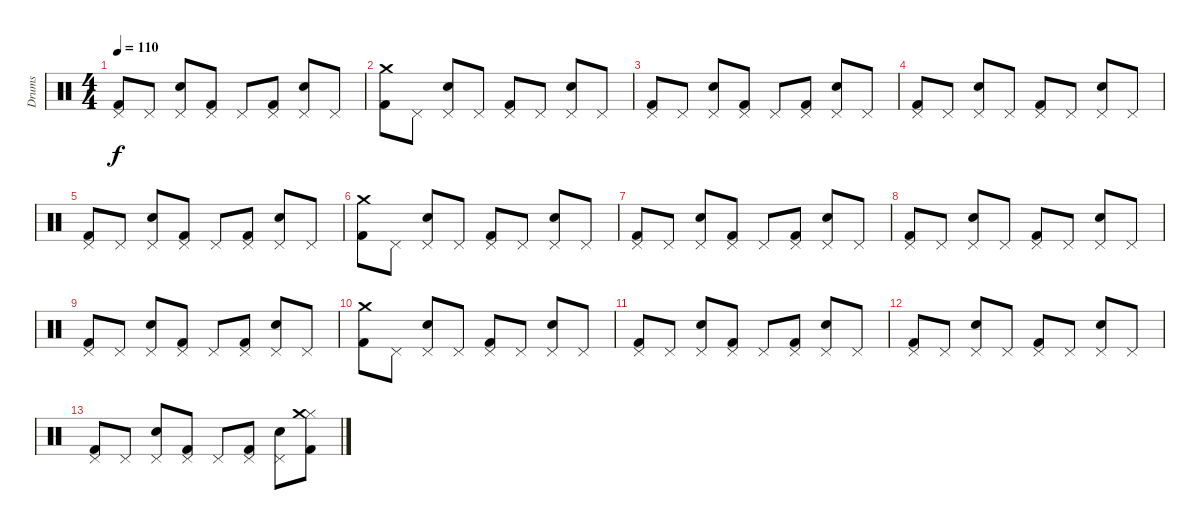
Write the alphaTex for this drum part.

\track ("Drums" "Drums") {instrument percussion}
\staff {score}
\articulation defaults
\ts (4 4)
\tempo 110
\clef neutral
\ks c
("Pedal Hi-Hat (hit)" "Kick (hit) 2").8{dy f} "Pedal Hi-Hat (hit)".8 ("Pedal Hi-Hat (hit)" "Snare (hit) 2").8 ("Pedal Hi-Hat (hit)" "Kick (hit) 2").8 "Pedal Hi-Hat (hit)".8 ("Pedal Hi-Hat (hit)" "Kick (hit) 2").8 ("Pedal Hi-Hat (hit)" "Snare (hit) 2").8 "Pedal Hi-Hat (hit)".8 |
("Crash medium (hit)" "Kick (hit) 2").8 "Pedal Hi-Hat (hit)".8 ("Pedal Hi-Hat (hit)" "Snare (hit) 2").8 "Pedal Hi-Hat (hit)".8 ("Pedal Hi-Hat (hit)" "Kick (hit) 2").8 "Pedal Hi-Hat (hit)".8 ("Pedal Hi-Hat (hit)" "Snare (hit) 2").8 "Pedal Hi-Hat (hit)".8 |
("Pedal Hi-Hat (hit)" "Kick (hit) 2").8 "Pedal Hi-Hat (hit)".8 ("Pedal Hi-Hat (hit)" "Snare (hit) 2").8 ("Pedal Hi-Hat (hit)" "Kick (hit) 2").8 "Pedal Hi-Hat (hit)".8 ("Pedal Hi-Hat (hit)" "Kick (hit) 2").8 ("Pedal Hi-Hat (hit)" "Snare (hit) 2").8 "Pedal Hi-Hat (hit)".8 |
("Pedal Hi-Hat (hit)" "Kick (hit) 2").8 "Pedal Hi-Hat (hit)".8 ("Pedal Hi-Hat (hit)" "Snare (hit) 2").8 "Pedal Hi-Hat (hit)".8 ("Pedal Hi-Hat (hit)" "Kick (hit) 2").8 "Pedal Hi-Hat (hit)".8 ("Pedal Hi-Hat (hit)" "Snare (hit) 2").8 "Pedal Hi-Hat (hit)".8 |
("Pedal Hi-Hat (hit)" "Kick (hit) 2").8 "Pedal Hi-Hat (hit)".8 ("Pedal Hi-Hat (hit)" "Snare (hit) 2").8 ("Pedal Hi-Hat (hit)" "Kick (hit) 2").8 "Pedal Hi-Hat (hit)".8 ("Pedal Hi-Hat (hit)" "Kick (hit) 2").8 ("Pedal Hi-Hat (hit)" "Snare (hit) 2").8 "Pedal Hi-Hat (hit)".8 |
("Crash medium (hit)" "Kick (hit) 2").8 "Pedal Hi-Hat (hit)".8 ("Pedal Hi-Hat (hit)" "Snare (hit) 2").8 "Pedal Hi-Hat (hit)".8 ("Pedal Hi-Hat (hit)" "Kick (hit) 2").8 "Pedal Hi-Hat (hit)".8 ("Pedal Hi-Hat (hit)" "Snare (hit) 2").8 "Pedal Hi-Hat (hit)".8 |
("Pedal Hi-Hat (hit)" "Kick (hit) 2").8 "Pedal Hi-Hat (hit)".8 ("Pedal Hi-Hat (hit)" "Snare (hit) 2").8 ("Pedal Hi-Hat (hit)" "Kick (hit) 2").8 "Pedal Hi-Hat (hit)".8 ("Pedal Hi-Hat (hit)" "Kick (hit) 2").8 ("Pedal Hi-Hat (hit)" "Snare (hit) 2").8 "Pedal Hi-Hat (hit)".8 |
("Pedal Hi-Hat (hit)" "Kick (hit) 2").8 "Pedal Hi-Hat (hit)".8 ("Pedal Hi-Hat (hit)" "Snare (hit) 2").8 "Pedal Hi-Hat (hit)".8 ("Pedal Hi-Hat (hit)" "Kick (hit) 2").8 "Pedal Hi-Hat (hit)".8 ("Pedal Hi-Hat (hit)" "Snare (hit) 2").8 "Pedal Hi-Hat (hit)".8 |
("Pedal Hi-Hat (hit)" "Kick (hit) 2").8 "Pedal Hi-Hat (hit)".8 ("Pedal Hi-Hat (hit)" "Snare (hit) 2").8 ("Pedal Hi-Hat (hit)" "Kick (hit) 2").8 "Pedal Hi-Hat (hit)".8 ("Pedal Hi-Hat (hit)" "Kick (hit) 2").8 ("Pedal Hi-Hat (hit)" "Snare (hit) 2").8 "Pedal Hi-Hat (hit)".8 |
("Crash medium (hit)" "Kick (hit) 2").8 "Pedal Hi-Hat (hit)".8 ("Pedal Hi-Hat (hit)" "Snare (hit) 2").8 "Pedal Hi-Hat (hit)".8 ("Pedal Hi-Hat (hit)" "Kick (hit) 2").8 "Pedal Hi-Hat (hit)".8 ("Pedal Hi-Hat (hit)" "Snare (hit) 2").8 "Pedal Hi-Hat (hit)".8 |
("Pedal Hi-Hat (hit)" "Kick (hit) 2").8 "Pedal Hi-Hat (hit)".8 ("Pedal Hi-Hat (hit)" "Snare (hit) 2").8 ("Pedal Hi-Hat (hit)" "Kick (hit) 2").8 "Pedal Hi-Hat (hit)".8 ("Pedal Hi-Hat (hit)" "Kick (hit) 2").8 ("Pedal Hi-Hat (hit)" "Snare (hit) 2").8 "Pedal Hi-Hat (hit)".8 |
("Pedal Hi-Hat (hit)" "Kick (hit) 2").8 "Pedal Hi-Hat (hit)".8 ("Pedal Hi-Hat (hit)" "Snare (hit) 2").8 "Pedal Hi-Hat (hit)".8 ("Pedal Hi-Hat (hit)" "Kick (hit) 2").8 "Pedal Hi-Hat (hit)".8 ("Pedal Hi-Hat (hit)" "Snare (hit) 2").8 "Pedal Hi-Hat (hit)".8 |
("Pedal Hi-Hat (hit)" "Kick (hit) 2").8 "Pedal Hi-Hat (hit)".8 ("Pedal Hi-Hat (hit)" "Snare (hit) 2").8 ("Pedal Hi-Hat (hit)" "Kick (hit) 2").8 "Pedal Hi-Hat (hit)".8 ("Pedal Hi-Hat (hit)" "Kick (hit) 2").8 ("Pedal Hi-Hat (hit)" "Snare (hit) 2").8 ("Hi-Hat (closed)" "Crash medium (hit)" "Kick (hit) 2").8
